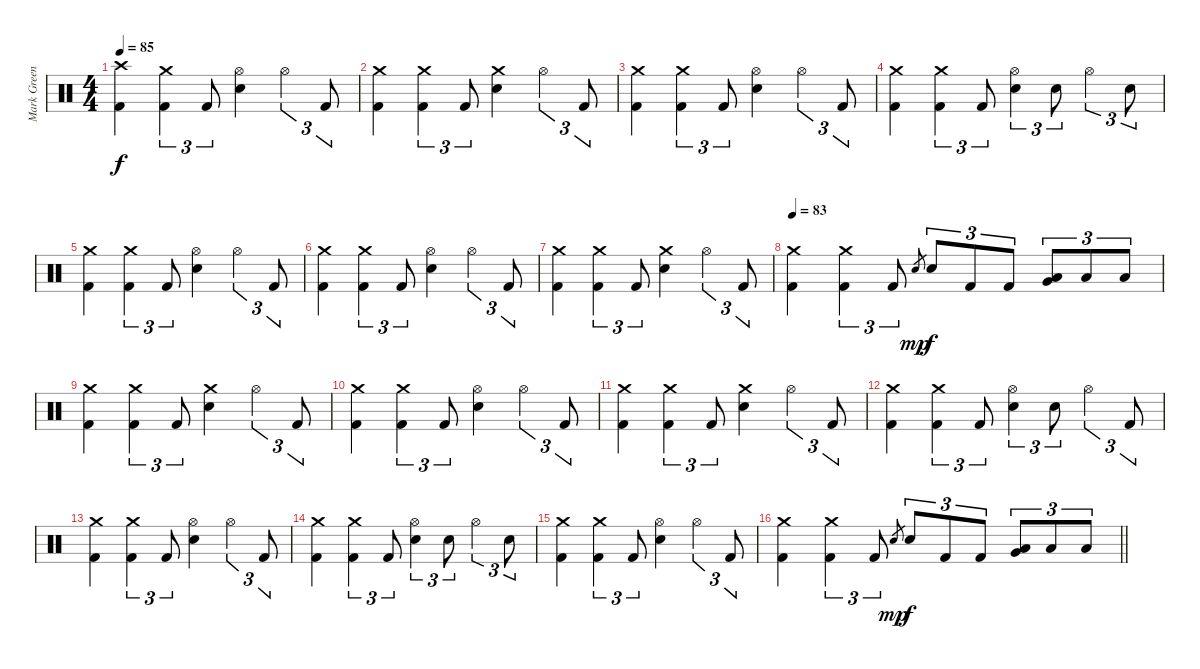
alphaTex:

\track ("Mark Greening" "Mark Green") {instrument percussion}
\staff {score}
\articulation defaults
\ts (4 4)
\section ("" "")
\tempo 85
\clef neutral
\ks c
("Crash high (hit)" "Kick (hit) 2").4{dy f volume 15} ("Crash medium (hit)" "Kick (hit) 2").4{tu (3 2)} "Kick (hit) 2".8{tu (3 2)} ("Hi-Hat (open)" "Electric Snare (hit)").4 "Hi-Hat (open)".4{tu (3 2)} "Kick (hit) 2".8{tu (3 2)} |
("Crash medium (hit)" "Kick (hit) 2").4 ("Crash medium (hit)" "Kick (hit) 2").4{tu (3 2)} "Kick (hit) 2".8{tu (3 2)} ("Crash medium (hit)" "Electric Snare (hit)").4 "Hi-Hat (open)".4{tu (3 2)} "Kick (hit) 2".8{tu (3 2)} |
("Crash medium (hit)" "Kick (hit) 2").4 ("Crash medium (hit)" "Kick (hit) 2").4{tu (3 2)} "Kick (hit) 2".8{tu (3 2)} ("Hi-Hat (open)" "Electric Snare (hit)").4 "Hi-Hat (open)".4{tu (3 2)} "Kick (hit) 2".8{tu (3 2)} |
("Crash medium (hit)" "Kick (hit) 2").4 ("Crash medium (hit)" "Kick (hit) 2").4{tu (3 2)} "Kick (hit) 2".8{tu (3 2)} ("Hi-Hat (open)" "Electric Snare (hit)").4{tu (3 2)} "Electric Snare (hit)".8{tu (3 2)} "Hi-Hat (open)".4{tu (3 2)} "Electric Snare (hit)".8{tu (3 2)} |
("Crash medium (hit)" "Kick (hit) 2").4 ("Crash medium (hit)" "Kick (hit) 2").4{tu (3 2)} "Kick (hit) 2".8{tu (3 2)} ("Hi-Hat (open)" "Electric Snare (hit)").4 "Hi-Hat (open)".4{tu (3 2)} "Kick (hit) 2".8{tu (3 2)} |
("Crash medium (hit)" "Kick (hit) 2").4 ("Crash medium (hit)" "Kick (hit) 2").4{tu (3 2)} "Kick (hit) 2".8{tu (3 2)} ("Hi-Hat (open)" "Electric Snare (hit)").4 "Hi-Hat (open)".4{tu (3 2)} "Kick (hit) 2".8{tu (3 2)} |
("Crash medium (hit)" "Kick (hit) 2").4 ("Crash medium (hit)" "Kick (hit) 2").4{tu (3 2)} "Kick (hit) 2".8{tu (3 2)} ("Crash medium (hit)" "Electric Snare (hit)").4 "Hi-Hat (open)".4{tu (3 2)} "Kick (hit) 2".8{tu (3 2)} |
\tempo 83
("Crash medium (hit)" "Kick (hit) 2").4 ("Crash medium (hit)" "Kick (hit) 2").4{tu (3 2)} "Kick (hit) 2".8{tu (3 2)} "Electric Snare (hit)".8{gr dy mp} "Electric Snare (hit)".8{tu (3 2) dy f} "Kick (hit) 2".8{tu (3 2)} "Kick (hit) 2".8{tu (3 2)} ("Very Low Tom (hit)" "Low Floor Tom (hit)").8{tu (3 2)} "Low Floor Tom (hit)".8{tu (3 2)} "Low Floor Tom (hit)".8{tu (3 2)} |
("Crash medium (hit)" "Kick (hit) 2").4 ("Crash medium (hit)" "Kick (hit) 2").4{tu (3 2)} "Kick (hit) 2".8{tu (3 2)} ("Crash medium (hit)" "Electric Snare (hit)").4 "Hi-Hat (open)".4{tu (3 2)} "Kick (hit) 2".8{tu (3 2)} |
("Crash medium (hit)" "Kick (hit) 2").4 ("Crash medium (hit)" "Kick (hit) 2").4{tu (3 2)} "Kick (hit) 2".8{tu (3 2)} ("Hi-Hat (open)" "Electric Snare (hit)").4 "Hi-Hat (open)".4{tu (3 2)} "Kick (hit) 2".8{tu (3 2)} |
("Crash medium (hit)" "Kick (hit) 2").4 ("Crash medium (hit)" "Kick (hit) 2").4{tu (3 2)} "Kick (hit) 2".8{tu (3 2)} ("Crash medium (hit)" "Electric Snare (hit)").4 "Hi-Hat (open)".4{tu (3 2)} "Kick (hit) 2".8{tu (3 2)} |
("Crash medium (hit)" "Kick (hit) 2").4 ("Crash medium (hit)" "Kick (hit) 2").4{tu (3 2)} "Kick (hit) 2".8{tu (3 2)} ("Hi-Hat (open)" "Electric Snare (hit)").4{tu (3 2)} "Electric Snare (hit)".8{tu (3 2)} "Hi-Hat (open)".4{tu (3 2)} "Kick (hit) 2".8{tu (3 2)} |
("Crash medium (hit)" "Kick (hit) 2").4 ("Crash medium (hit)" "Kick (hit) 2").4{tu (3 2)} "Kick (hit) 2".8{tu (3 2)} ("Hi-Hat (open)" "Electric Snare (hit)").4 "Hi-Hat (open)".4{tu (3 2)} "Kick (hit) 2".8{tu (3 2)} |
("Crash medium (hit)" "Kick (hit) 2").4 ("Crash medium (hit)" "Kick (hit) 2").4{tu (3 2)} "Kick (hit) 2".8{tu (3 2)} ("Hi-Hat (open)" "Electric Snare (hit)").4{tu (3 2)} "Electric Snare (hit)".8{tu (3 2)} "Hi-Hat (open)".4{tu (3 2)} "Electric Snare (hit)".8{tu (3 2)} |
("Crash medium (hit)" "Kick (hit) 2").4 ("Crash medium (hit)" "Kick (hit) 2").4{tu (3 2)} "Kick (hit) 2".8{tu (3 2)} ("Hi-Hat (open)" "Electric Snare (hit)").4 "Hi-Hat (open)".4{tu (3 2)} "Kick (hit) 2".8{tu (3 2)} |
\barLineRight lightlight
("Crash medium (hit)" "Kick (hit) 2").4 ("Crash medium (hit)" "Kick (hit) 2").4{tu (3 2)} "Kick (hit) 2".8{tu (3 2)} "Electric Snare (hit)".8{gr dy mp} "Electric Snare (hit)".8{tu (3 2) dy f} "Kick (hit) 2".8{tu (3 2)} "Kick (hit) 2".8{tu (3 2)} ("Very Low Tom (hit)" "Low Floor Tom (hit)").8{tu (3 2)} "Low Floor Tom (hit)".8{tu (3 2)} "Low Floor Tom (hit)".8{tu (3 2)}
